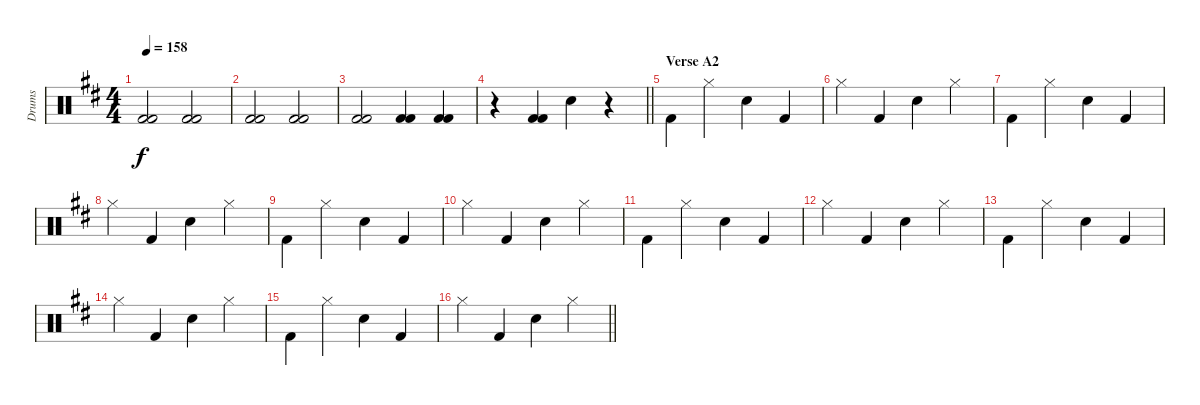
\track ("Drums" "Drums") {instrument percussion}
\staff {score}
\articulation defaults
\ts (4 4)
\tempo 158
\clef neutral
\ks d
("Kick (hit) 2" "Kick (hit) 2").2{dy f} ("Kick (hit) 2" "Kick (hit) 2").2 |
("Kick (hit) 2" "Kick (hit) 2").2 ("Kick (hit) 2" "Kick (hit) 2").2 |
("Kick (hit) 2" "Kick (hit) 2").2 ("Kick (hit) 2" "Kick (hit) 2").4 ("Kick (hit) 2" "Kick (hit) 2").4 |
\barLineRight lightlight
r.4{beam merge} ("Kick (hit) 2" "Kick (hit) 2").4 "Snare (hit) 2".4 r.4 |
\section ("" "Verse A2")
"Kick (hit) 2".4{beam merge} "Hi-Hat (closed)".4 "Snare (hit) 2".4 "Kick (hit) 2".4 |
"Hi-Hat (closed)".4 "Kick (hit) 2".4 "Snare (hit) 2".4 "Hi-Hat (closed)".4 |
"Kick (hit) 2".4{beam merge} "Hi-Hat (closed)".4 "Snare (hit) 2".4 "Kick (hit) 2".4 |
"Hi-Hat (closed)".4 "Kick (hit) 2".4 "Snare (hit) 2".4 "Hi-Hat (closed)".4 |
"Kick (hit) 2".4{beam merge} "Hi-Hat (closed)".4 "Snare (hit) 2".4 "Kick (hit) 2".4 |
"Hi-Hat (closed)".4 "Kick (hit) 2".4 "Snare (hit) 2".4 "Hi-Hat (closed)".4 |
"Kick (hit) 2".4{beam merge} "Hi-Hat (closed)".4 "Snare (hit) 2".4 "Kick (hit) 2".4 |
"Hi-Hat (closed)".4 "Kick (hit) 2".4 "Snare (hit) 2".4 "Hi-Hat (closed)".4 |
"Kick (hit) 2".4{beam merge} "Hi-Hat (closed)".4 "Snare (hit) 2".4 "Kick (hit) 2".4 |
"Hi-Hat (closed)".4 "Kick (hit) 2".4 "Snare (hit) 2".4 "Hi-Hat (closed)".4 |
"Kick (hit) 2".4{beam merge} "Hi-Hat (closed)".4 "Snare (hit) 2".4 "Kick (hit) 2".4 |
\barLineRight lightlight "Hi-Hat (closed)".4 "Kick (hit) 2".4 "Snare (hit) 2".4 "Hi-Hat (closed)".4
